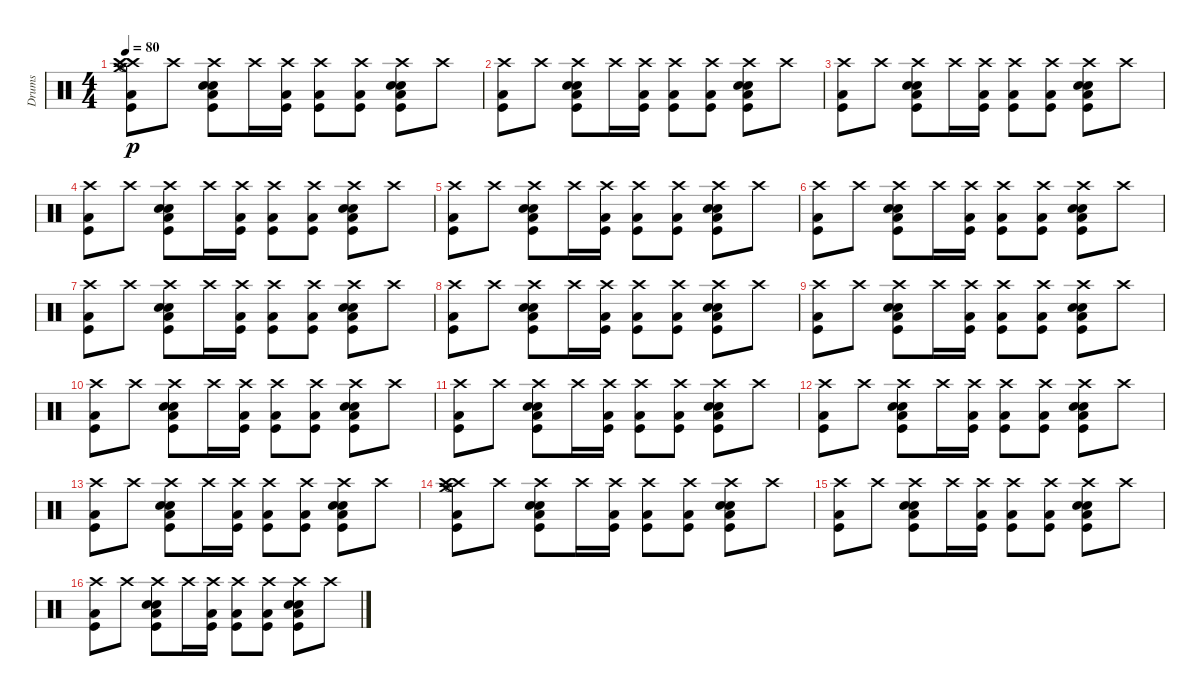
\track ("Drums" "Drums") {instrument percussion}
\staff {score}
\articulation defaults
\ts (4 4)
\tempo 80
\clef neutral
\ks c
("Crash high (hit)" "Low Tom (hit)" "Kick (hit)" "Crash high (hit)" "Crash medium (hit)" "Hi-Hat (open)").8{dy p} "Crash high (hit)".8 ("Crash high (hit)" "Low Tom (hit)" "Electric Snare (hit)" "Snare (hit) 2" "Kick (hit)").8 "Crash high (hit)".16 ("Crash high (hit)" "Low Tom (hit)" "Kick (hit)").16 ("Crash high (hit)" "Low Tom (hit)" "Kick (hit)").8 ("Crash high (hit)" "Low Tom (hit)" "Kick (hit)").8 ("Crash high (hit)" "Low Tom (hit)" "Electric Snare (hit)" "Snare (hit) 2" "Kick (hit)").8 "Crash high (hit)".8 |
("Crash high (hit)" "Low Tom (hit)" "Kick (hit)").8 "Crash high (hit)".8 ("Crash high (hit)" "Low Tom (hit)" "Electric Snare (hit)" "Snare (hit) 2" "Kick (hit)").8 "Crash high (hit)".16 ("Crash high (hit)" "Low Tom (hit)" "Kick (hit)").16 ("Crash high (hit)" "Low Tom (hit)" "Kick (hit)").8 ("Crash high (hit)" "Low Tom (hit)" "Kick (hit)").8 ("Crash high (hit)" "Low Tom (hit)" "Electric Snare (hit)" "Snare (hit) 2" "Kick (hit)").8 "Crash high (hit)".8 |
("Crash high (hit)" "Low Tom (hit)" "Kick (hit)").8 "Crash high (hit)".8 ("Crash high (hit)" "Low Tom (hit)" "Electric Snare (hit)" "Snare (hit) 2" "Kick (hit)").8 "Crash high (hit)".16 ("Crash high (hit)" "Low Tom (hit)" "Kick (hit)").16 ("Crash high (hit)" "Low Tom (hit)" "Kick (hit)").8 ("Crash high (hit)" "Low Tom (hit)" "Kick (hit)").8 ("Crash high (hit)" "Low Tom (hit)" "Electric Snare (hit)" "Snare (hit) 2" "Kick (hit)").8 "Crash high (hit)".8 |
("Crash high (hit)" "Low Tom (hit)" "Kick (hit)").8 "Crash high (hit)".8 ("Crash high (hit)" "Low Tom (hit)" "Electric Snare (hit)" "Snare (hit) 2" "Kick (hit)").8 "Crash high (hit)".16 ("Crash high (hit)" "Low Tom (hit)" "Kick (hit)").16 ("Crash high (hit)" "Low Tom (hit)" "Kick (hit)").8 ("Crash high (hit)" "Low Tom (hit)" "Kick (hit)").8 ("Crash high (hit)" "Low Tom (hit)" "Electric Snare (hit)" "Snare (hit) 2" "Kick (hit)").8 "Crash high (hit)".8 |
("Crash high (hit)" "Low Tom (hit)" "Kick (hit)").8 "Crash high (hit)".8 ("Crash high (hit)" "Low Tom (hit)" "Electric Snare (hit)" "Snare (hit) 2" "Kick (hit)").8 "Crash high (hit)".16 ("Crash high (hit)" "Low Tom (hit)" "Kick (hit)").16 ("Crash high (hit)" "Low Tom (hit)" "Kick (hit)").8 ("Crash high (hit)" "Low Tom (hit)" "Kick (hit)").8 ("Crash high (hit)" "Low Tom (hit)" "Electric Snare (hit)" "Snare (hit) 2" "Kick (hit)").8 "Crash high (hit)".8 |
("Crash high (hit)" "Low Tom (hit)" "Kick (hit)").8 "Crash high (hit)".8 ("Crash high (hit)" "Low Tom (hit)" "Electric Snare (hit)" "Snare (hit) 2" "Kick (hit)").8 "Crash high (hit)".16 ("Crash high (hit)" "Low Tom (hit)" "Kick (hit)").16 ("Crash high (hit)" "Low Tom (hit)" "Kick (hit)").8 ("Crash high (hit)" "Low Tom (hit)" "Kick (hit)").8 ("Crash high (hit)" "Low Tom (hit)" "Electric Snare (hit)" "Snare (hit) 2" "Kick (hit)").8 "Crash high (hit)".8 |
("Crash high (hit)" "Low Tom (hit)" "Kick (hit)").8 "Crash high (hit)".8 ("Crash high (hit)" "Low Tom (hit)" "Electric Snare (hit)" "Snare (hit) 2" "Kick (hit)").8 "Crash high (hit)".16 ("Crash high (hit)" "Low Tom (hit)" "Kick (hit)").16 ("Crash high (hit)" "Low Tom (hit)" "Kick (hit)").8 ("Crash high (hit)" "Low Tom (hit)" "Kick (hit)").8 ("Crash high (hit)" "Low Tom (hit)" "Electric Snare (hit)" "Snare (hit) 2" "Kick (hit)").8 "Crash high (hit)".8 |
("Crash high (hit)" "Low Tom (hit)" "Kick (hit)").8 "Crash high (hit)".8 ("Crash high (hit)" "Low Tom (hit)" "Electric Snare (hit)" "Snare (hit) 2" "Kick (hit)").8 "Crash high (hit)".16 ("Crash high (hit)" "Low Tom (hit)" "Kick (hit)").16 ("Crash high (hit)" "Low Tom (hit)" "Kick (hit)").8 ("Crash high (hit)" "Low Tom (hit)" "Kick (hit)").8 ("Crash high (hit)" "Low Tom (hit)" "Electric Snare (hit)" "Snare (hit) 2" "Kick (hit)").8 "Crash high (hit)".8 |
("Crash high (hit)" "Low Tom (hit)" "Kick (hit)").8 "Crash high (hit)".8 ("Crash high (hit)" "Low Tom (hit)" "Electric Snare (hit)" "Snare (hit) 2" "Kick (hit)").8 "Crash high (hit)".16 ("Crash high (hit)" "Low Tom (hit)" "Kick (hit)").16 ("Crash high (hit)" "Low Tom (hit)" "Kick (hit)").8 ("Crash high (hit)" "Low Tom (hit)" "Kick (hit)").8 ("Crash high (hit)" "Low Tom (hit)" "Electric Snare (hit)" "Snare (hit) 2" "Kick (hit)").8 "Crash high (hit)".8 |
("Crash high (hit)" "Low Tom (hit)" "Kick (hit)").8 "Crash high (hit)".8 ("Crash high (hit)" "Low Tom (hit)" "Electric Snare (hit)" "Snare (hit) 2" "Kick (hit)").8 "Crash high (hit)".16 ("Crash high (hit)" "Low Tom (hit)" "Kick (hit)").16 ("Crash high (hit)" "Low Tom (hit)" "Kick (hit)").8 ("Crash high (hit)" "Low Tom (hit)" "Kick (hit)").8 ("Crash high (hit)" "Low Tom (hit)" "Electric Snare (hit)" "Snare (hit) 2" "Kick (hit)").8 "Crash high (hit)".8 |
("Crash high (hit)" "Low Tom (hit)" "Kick (hit)").8 "Crash high (hit)".8 ("Crash high (hit)" "Low Tom (hit)" "Electric Snare (hit)" "Snare (hit) 2" "Kick (hit)").8 "Crash high (hit)".16 ("Crash high (hit)" "Low Tom (hit)" "Kick (hit)").16 ("Crash high (hit)" "Low Tom (hit)" "Kick (hit)").8 ("Crash high (hit)" "Low Tom (hit)" "Kick (hit)").8 ("Crash high (hit)" "Low Tom (hit)" "Electric Snare (hit)" "Snare (hit) 2" "Kick (hit)").8 "Crash high (hit)".8 |
("Crash high (hit)" "Low Tom (hit)" "Kick (hit)").8 "Crash high (hit)".8 ("Crash high (hit)" "Low Tom (hit)" "Electric Snare (hit)" "Snare (hit) 2" "Kick (hit)").8 "Crash high (hit)".16 ("Crash high (hit)" "Low Tom (hit)" "Kick (hit)").16 ("Crash high (hit)" "Low Tom (hit)" "Kick (hit)").8 ("Crash high (hit)" "Low Tom (hit)" "Kick (hit)").8 ("Crash high (hit)" "Low Tom (hit)" "Electric Snare (hit)" "Snare (hit) 2" "Kick (hit)").8 "Crash high (hit)".8 |
("Crash high (hit)" "Low Tom (hit)" "Kick (hit)").8 "Crash high (hit)".8 ("Crash high (hit)" "Low Tom (hit)" "Electric Snare (hit)" "Snare (hit) 2" "Kick (hit)").8 "Crash high (hit)".16 ("Crash high (hit)" "Low Tom (hit)" "Kick (hit)").16 ("Crash high (hit)" "Low Tom (hit)" "Kick (hit)").8 ("Crash high (hit)" "Low Tom (hit)" "Kick (hit)").8 ("Crash high (hit)" "Low Tom (hit)" "Electric Snare (hit)" "Snare (hit) 2" "Kick (hit)").8 "Crash high (hit)".8 |
("Crash high (hit)" "Low Tom (hit)" "Kick (hit)" "Crash high (hit)" "Crash medium (hit)" "Hi-Hat (open)").8 "Crash high (hit)".8 ("Crash high (hit)" "Low Tom (hit)" "Electric Snare (hit)" "Snare (hit) 2" "Kick (hit)").8 "Crash high (hit)".16 ("Crash high (hit)" "Low Tom (hit)" "Kick (hit)").16 ("Crash high (hit)" "Low Tom (hit)" "Kick (hit)").8 ("Crash high (hit)" "Low Tom (hit)" "Kick (hit)").8 ("Crash high (hit)" "Low Tom (hit)" "Electric Snare (hit)" "Snare (hit) 2" "Kick (hit)").8 "Crash high (hit)".8 |
("Crash high (hit)" "Low Tom (hit)" "Kick (hit)").8 "Crash high (hit)".8 ("Crash high (hit)" "Low Tom (hit)" "Electric Snare (hit)" "Snare (hit) 2" "Kick (hit)").8 "Crash high (hit)".16 ("Crash high (hit)" "Low Tom (hit)" "Kick (hit)").16 ("Crash high (hit)" "Low Tom (hit)" "Kick (hit)").8 ("Crash high (hit)" "Low Tom (hit)" "Kick (hit)").8 ("Crash high (hit)" "Low Tom (hit)" "Electric Snare (hit)" "Snare (hit) 2" "Kick (hit)").8 "Crash high (hit)".8 |
("Crash high (hit)" "Low Tom (hit)" "Kick (hit)").8 "Crash high (hit)".8 ("Crash high (hit)" "Low Tom (hit)" "Electric Snare (hit)" "Snare (hit) 2" "Kick (hit)").8 "Crash high (hit)".16 ("Crash high (hit)" "Low Tom (hit)" "Kick (hit)").16 ("Crash high (hit)" "Low Tom (hit)" "Kick (hit)").8 ("Crash high (hit)" "Low Tom (hit)" "Kick (hit)").8 ("Crash high (hit)" "Low Tom (hit)" "Electric Snare (hit)" "Snare (hit) 2" "Kick (hit)").8 "Crash high (hit)".8
